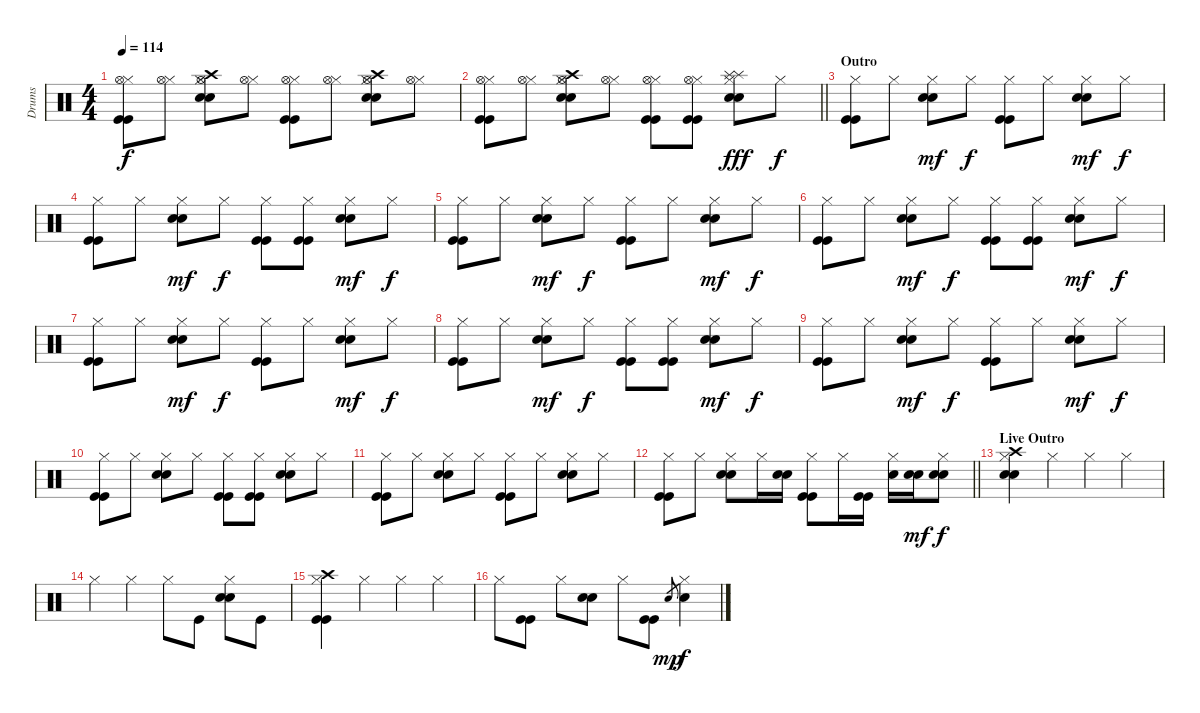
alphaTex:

\track ("Drums" "Drums") {instrument percussion}
\staff {score}
\articulation defaults
\ts (4 4)
\tempo 114
\clef neutral
\ks c
("Kick (hit)" "Kick (hit)" "Hi-Hat (closed)" "Hi-Hat (open)").8{dy f} ("Hi-Hat (closed)" "Hi-Hat (open)").8 ("Snare (hit) 2" "Snare (hit) 2" "Hi-Hat (closed)" "Hi-Hat (open)" "Crash high (hit)").8 ("Hi-Hat (closed)" "Hi-Hat (open)").8 ("Kick (hit)" "Kick (hit)" "Hi-Hat (closed)" "Hi-Hat (open)").8 ("Hi-Hat (closed)" "Hi-Hat (open)").8 ("Snare (hit) 2" "Snare (hit) 2" "Hi-Hat (closed)" "Hi-Hat (open)" "Crash high (hit)").8 ("Hi-Hat (closed)" "Hi-Hat (open)").8 |
\barLineRight lightlight
("Kick (hit)" "Kick (hit)" "Hi-Hat (closed)" "Hi-Hat (open)").8 ("Hi-Hat (closed)" "Hi-Hat (open)").8 ("Snare (hit) 2" "Snare (hit) 2" "Hi-Hat (closed)" "Hi-Hat (open)" "Crash high (hit)").8 ("Hi-Hat (closed)" "Hi-Hat (open)").8 ("Kick (hit)" "Kick (hit)" "Hi-Hat (closed)" "Hi-Hat (open)").8 ("Kick (hit)" "Kick (hit)" "Hi-Hat (closed)" "Hi-Hat (open)").8 ("Snare (hit) 2" "Snare (hit) 2" "Hi-Hat (closed)" "Splash (hit)" "Splash (hit)").8{dy fff} "Hi-Hat (closed)".8{dy f} |
\section ("" "Outro")
("Kick (hit)" "Kick (hit)" "Hi-Hat (closed)").8 "Hi-Hat (closed)".8 ("Snare (hit) 2" "Snare (hit) 2" "Hi-Hat (closed)").8{dy mf} "Hi-Hat (closed)".8{dy f} ("Kick (hit)" "Kick (hit)" "Hi-Hat (closed)").8 "Hi-Hat (closed)".8 ("Snare (hit) 2" "Snare (hit) 2" "Hi-Hat (closed)").8{dy mf} "Hi-Hat (closed)".8{dy f} |
("Kick (hit)" "Kick (hit)" "Hi-Hat (closed)").8 "Hi-Hat (closed)".8 ("Snare (hit) 2" "Snare (hit) 2" "Hi-Hat (closed)").8{dy mf} "Hi-Hat (closed)".8{dy f} ("Kick (hit)" "Kick (hit)" "Hi-Hat (closed)").8 ("Kick (hit)" "Kick (hit)" "Hi-Hat (closed)").8 ("Snare (hit) 2" "Snare (hit) 2" "Hi-Hat (closed)").8{dy mf} "Hi-Hat (closed)".8{dy f} |
("Kick (hit)" "Kick (hit)" "Hi-Hat (closed)").8 "Hi-Hat (closed)".8 ("Snare (hit) 2" "Snare (hit) 2" "Hi-Hat (closed)").8{dy mf} "Hi-Hat (closed)".8{dy f} ("Kick (hit)" "Kick (hit)" "Hi-Hat (closed)").8 "Hi-Hat (closed)".8 ("Snare (hit) 2" "Snare (hit) 2" "Hi-Hat (closed)").8{dy mf} "Hi-Hat (closed)".8{dy f} |
("Kick (hit)" "Kick (hit)" "Hi-Hat (closed)").8 "Hi-Hat (closed)".8 ("Snare (hit) 2" "Snare (hit) 2" "Hi-Hat (closed)").8{dy mf} "Hi-Hat (closed)".8{dy f} ("Kick (hit)" "Kick (hit)" "Hi-Hat (closed)").8 ("Kick (hit)" "Kick (hit)" "Hi-Hat (closed)").8 ("Snare (hit) 2" "Snare (hit) 2" "Hi-Hat (closed)").8{dy mf} "Hi-Hat (closed)".8{dy f} |
("Kick (hit)" "Kick (hit)" "Hi-Hat (closed)").8 "Hi-Hat (closed)".8 ("Snare (hit) 2" "Snare (hit) 2" "Hi-Hat (closed)").8{dy mf} "Hi-Hat (closed)".8{dy f} ("Kick (hit)" "Kick (hit)" "Hi-Hat (closed)").8 "Hi-Hat (closed)".8 ("Snare (hit) 2" "Snare (hit) 2" "Hi-Hat (closed)").8{dy mf} "Hi-Hat (closed)".8{dy f} |
("Kick (hit)" "Kick (hit)" "Hi-Hat (closed)").8 "Hi-Hat (closed)".8 ("Snare (hit) 2" "Snare (hit) 2" "Hi-Hat (closed)").8{dy mf} "Hi-Hat (closed)".8{dy f} ("Kick (hit)" "Kick (hit)" "Hi-Hat (closed)").8 ("Kick (hit)" "Kick (hit)" "Hi-Hat (closed)").8 ("Snare (hit) 2" "Snare (hit) 2" "Hi-Hat (closed)").8{dy mf} "Hi-Hat (closed)".8{dy f} |
("Kick (hit)" "Kick (hit)" "Hi-Hat (closed)").8 "Hi-Hat (closed)".8 ("Snare (hit) 2" "Snare (hit) 2" "Hi-Hat (closed)").8{dy mf} "Hi-Hat (closed)".8{dy f} ("Kick (hit)" "Kick (hit)" "Hi-Hat (closed)").8 "Hi-Hat (closed)".8 ("Snare (hit) 2" "Snare (hit) 2" "Hi-Hat (closed)").8{dy mf} "Hi-Hat (closed)".8{dy f} |
("Kick (hit)" "Kick (hit)" "Hi-Hat (closed)").8 "Hi-Hat (closed)".8 ("Snare (hit) 2" "Snare (hit) 2" "Hi-Hat (closed)").8 "Hi-Hat (closed)".8 ("Kick (hit)" "Kick (hit)" "Hi-Hat (closed)").8 ("Kick (hit)" "Kick (hit)" "Hi-Hat (closed)").8 ("Snare (hit) 2" "Snare (hit) 2" "Hi-Hat (closed)").8 "Hi-Hat (closed)".8 |
("Kick (hit)" "Kick (hit)" "Hi-Hat (closed)").8 "Hi-Hat (closed)".8 ("Snare (hit) 2" "Snare (hit) 2" "Hi-Hat (closed)").8 "Hi-Hat (closed)".8 ("Kick (hit)" "Kick (hit)" "Hi-Hat (closed)").8 "Hi-Hat (closed)".8 ("Snare (hit) 2" "Snare (hit) 2" "Hi-Hat (closed)").8 "Hi-Hat (closed)".8 |
\barLineRight lightlight
("Kick (hit)" "Kick (hit)" "Hi-Hat (closed)").8 "Hi-Hat (closed)".8 ("Snare (hit) 2" "Snare (hit) 2" "Hi-Hat (closed)").8 "Hi-Hat (closed)".16 ("Snare (hit) 2" "Snare (hit) 2").16 ("Kick (hit)" "Kick (hit)" "Hi-Hat (closed)").8 "Hi-Hat (closed)".16 ("Kick (hit)" "Kick (hit)").16 ("Snare (hit) 2" "Hi-Hat (closed)").16 ("Snare (hit) 2" "Snare (hit) 2").16{dy mf} ("Snare (hit) 2" "Snare (hit) 2" "Hi-Hat (closed)").8{dy f} |
\section ("" "Live Outro")
("Crash high (hit)" "Hi-Hat (closed)" "Snare (hit) 2" "Snare (hit) 2").4 "Hi-Hat (closed)".4 "Hi-Hat (closed)".4 "Hi-Hat (closed)".4 |
"Hi-Hat (closed)".4 "Hi-Hat (closed)".4 "Hi-Hat (closed)".8 "Kick (hit)".8 ("Snare (hit) 2" "Snare (hit) 2" "Hi-Hat (closed)").8 "Kick (hit)".8 |
("Crash high (hit)" "Hi-Hat (closed)" "Kick (hit)" "Kick (hit)").4 "Hi-Hat (closed)".4 "Hi-Hat (closed)".4 "Hi-Hat (closed)".4 |
"Hi-Hat (closed)".8 ("Kick (hit)" "Kick (hit)").8 "Hi-Hat (closed)".8 ("Snare (hit) 2" "Snare (hit) 2").8 "Hi-Hat (closed)".8 ("Kick (hit)" "Kick (hit)").8 "Snare (hit) 2".8{gr dy mp} ("Hi-Hat (closed)" "Snare (hit) 2").4{dy f}
